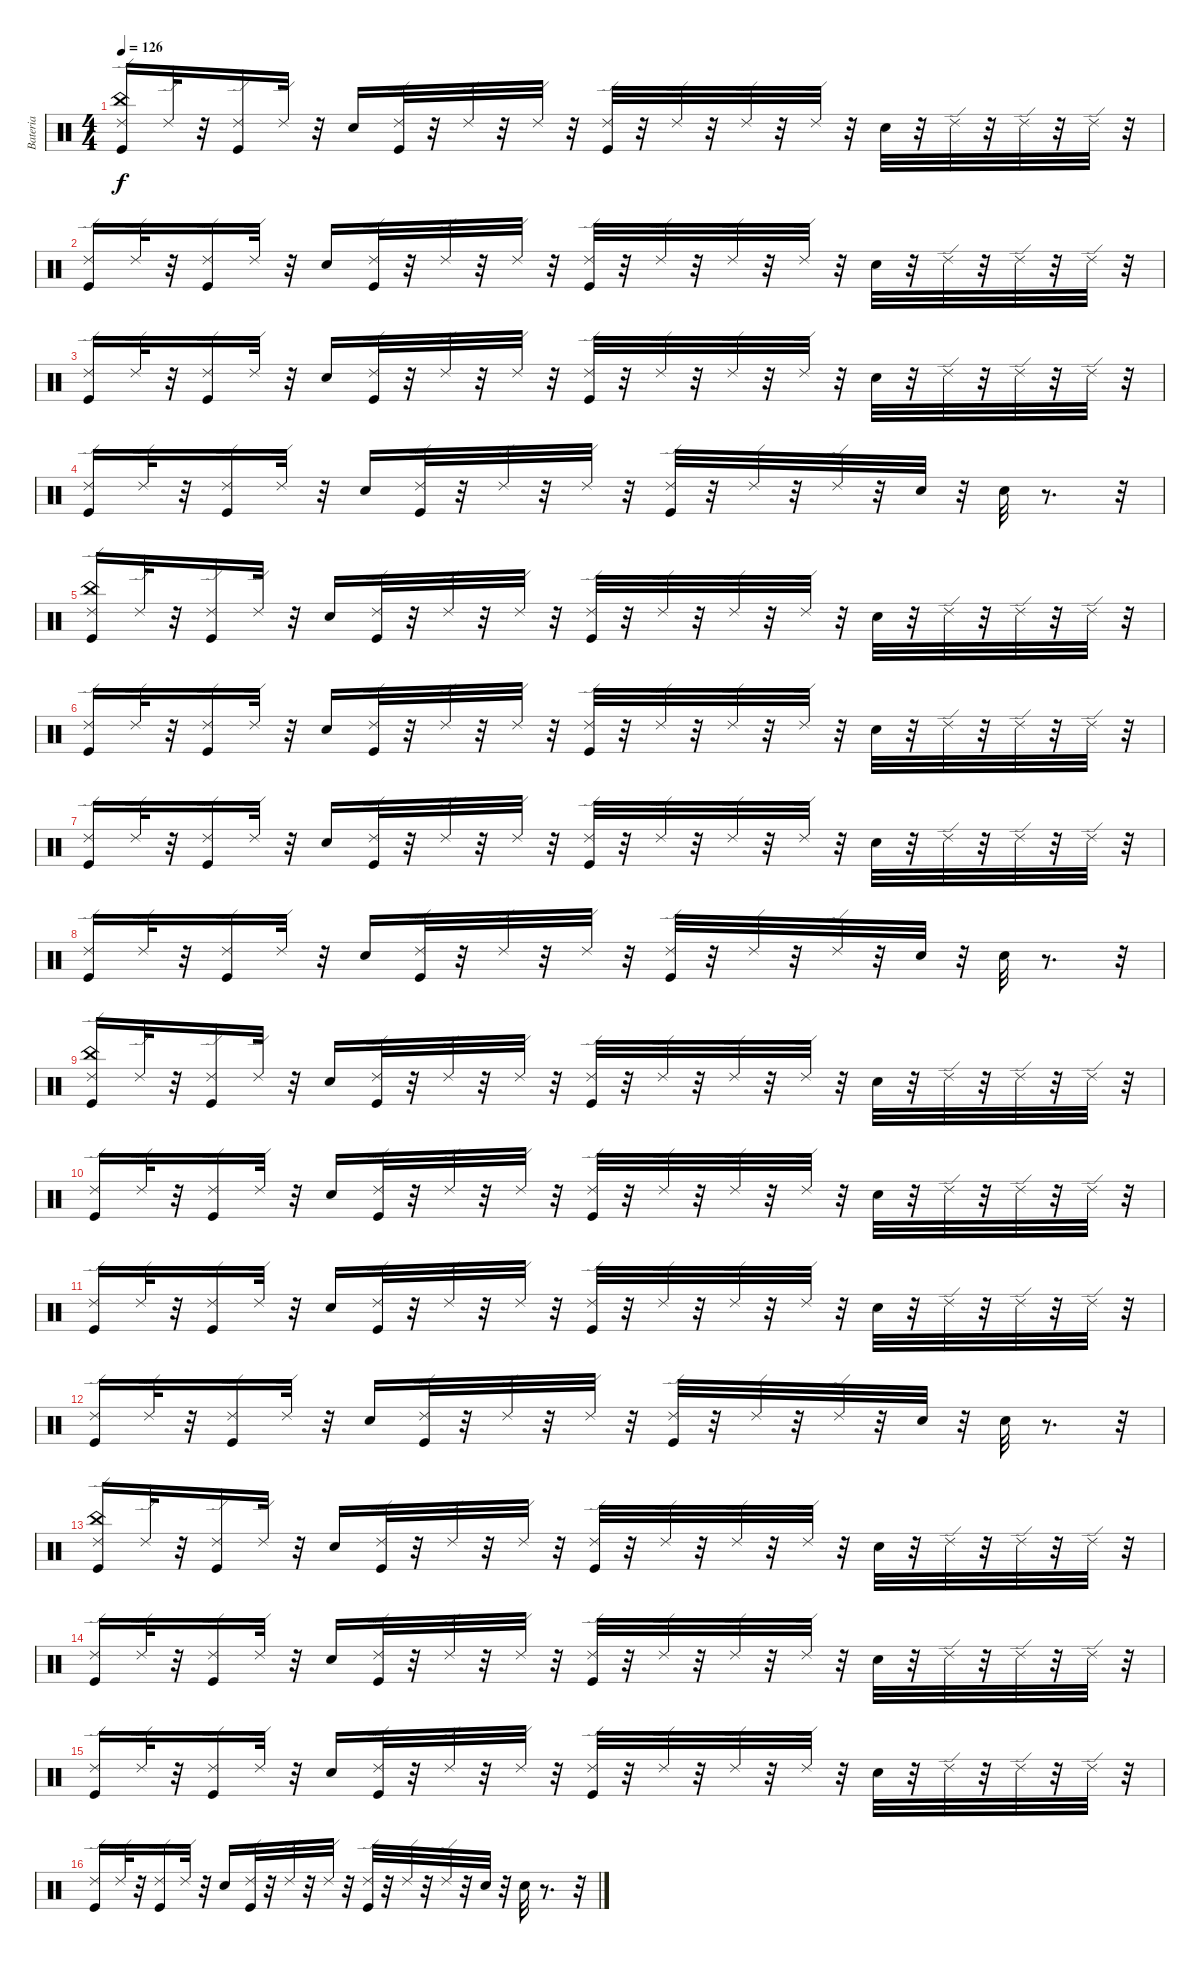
\track ("Bateria" "Bateria") {instrument percussion}
\staff {score}
\articulation defaults
\ts (4 4)
\tempo 126
\clef neutral
\ks c
("Ride (edge) 2" "China (hit)" "Kick (hit)").16{dy f} "Ride (edge) 2".32 r.32 ("Ride (edge) 2" "Kick (hit)").16 "Ride (edge) 2".32 r.32 "Snare (hit) 2".16 ("Kick (hit)" "Ride (edge) 2").32 r.32 "Ride (edge) 2".32 r.32 "Ride (edge) 2".32 r.32 ("Kick (hit)" "Ride (edge) 2").32 r.32 "Ride (edge) 2".32 r.32 "Ride (edge) 2".32 r.32 "Ride (edge) 2".32 r.32 "Snare (hit) 2".32 r.32 "Ride (edge) 2".32 r.32 "Ride (edge) 2".32 r.32 "Ride (edge) 2".32 r.32 |
("Ride (edge) 2" "Kick (hit)").16 "Ride (edge) 2".32 r.32 ("Kick (hit)" "Ride (edge) 2").16 "Ride (edge) 2".32 r.32 "Snare (hit) 2".16 ("Ride (edge) 2" "Kick (hit)").32 r.32 "Ride (edge) 2".32 r.32 "Ride (edge) 2".32 r.32 ("Kick (hit)" "Ride (edge) 2").32 r.32 "Ride (edge) 2".32 r.32 "Ride (edge) 2".32 r.32 "Ride (edge) 2".32 r.32 "Snare (hit) 2".32 r.32 "Ride (edge) 2".32 r.32 "Ride (edge) 2".32 r.32 "Ride (edge) 2".32 r.32 |
("Kick (hit)" "Ride (edge) 2").16 "Ride (edge) 2".32 r.32 ("Kick (hit)" "Ride (edge) 2").16 "Ride (edge) 2".32 r.32 "Snare (hit) 2".16 ("Ride (edge) 2" "Kick (hit)").32 r.32 "Ride (edge) 2".32 r.32 "Ride (edge) 2".32 r.32 ("Ride (edge) 2" "Kick (hit)").32 r.32 "Ride (edge) 2".32 r.32 "Ride (edge) 2".32 r.32 "Ride (edge) 2".32 r.32 "Snare (hit) 2".32 r.32 "Ride (edge) 2".32 r.32 "Ride (edge) 2".32 r.32 "Ride (edge) 2".32 r.32 |
("Kick (hit)" "Ride (edge) 2").16 "Ride (edge) 2".32 r.32 ("Kick (hit)" "Ride (edge) 2").16 "Ride (edge) 2".32 r.32 "Snare (hit) 2".16 ("Kick (hit)" "Ride (edge) 2").32 r.32 "Ride (edge) 2".32 r.32 "Ride (edge) 2".32 r.32 ("Kick (hit)" "Ride (edge) 2").32 r.32 "Ride (edge) 2".32 r.32 "Ride (edge) 2".32 r.32 "Snare (hit) 2".32 r.32 "Snare (hit) 2".32 r.8{d} r.32 |
("Ride (edge) 2" "China (hit)" "Kick (hit)").16 "Ride (edge) 2".32 r.32 ("Ride (edge) 2" "Kick (hit)").16 "Ride (edge) 2".32 r.32 "Snare (hit) 2".16 ("Kick (hit)" "Ride (edge) 2").32 r.32 "Ride (edge) 2".32 r.32 "Ride (edge) 2".32 r.32 ("Kick (hit)" "Ride (edge) 2").32 r.32 "Ride (edge) 2".32 r.32 "Ride (edge) 2".32 r.32 "Ride (edge) 2".32 r.32 "Snare (hit) 2".32 r.32 "Ride (edge) 2".32 r.32 "Ride (edge) 2".32 r.32 "Ride (edge) 2".32 r.32 |
("Ride (edge) 2" "Kick (hit)").16 "Ride (edge) 2".32 r.32 ("Kick (hit)" "Ride (edge) 2").16 "Ride (edge) 2".32 r.32 "Snare (hit) 2".16 ("Ride (edge) 2" "Kick (hit)").32 r.32 "Ride (edge) 2".32 r.32 "Ride (edge) 2".32 r.32 ("Kick (hit)" "Ride (edge) 2").32 r.32 "Ride (edge) 2".32 r.32 "Ride (edge) 2".32 r.32 "Ride (edge) 2".32 r.32 "Snare (hit) 2".32 r.32 "Ride (edge) 2".32 r.32 "Ride (edge) 2".32 r.32 "Ride (edge) 2".32 r.32 |
("Kick (hit)" "Ride (edge) 2").16 "Ride (edge) 2".32 r.32 ("Kick (hit)" "Ride (edge) 2").16 "Ride (edge) 2".32 r.32 "Snare (hit) 2".16 ("Ride (edge) 2" "Kick (hit)").32 r.32 "Ride (edge) 2".32 r.32 "Ride (edge) 2".32 r.32 ("Ride (edge) 2" "Kick (hit)").32 r.32 "Ride (edge) 2".32 r.32 "Ride (edge) 2".32 r.32 "Ride (edge) 2".32 r.32 "Snare (hit) 2".32 r.32 "Ride (edge) 2".32 r.32 "Ride (edge) 2".32 r.32 "Ride (edge) 2".32 r.32 |
("Kick (hit)" "Ride (edge) 2").16 "Ride (edge) 2".32 r.32 ("Kick (hit)" "Ride (edge) 2").16 "Ride (edge) 2".32 r.32 "Snare (hit) 2".16 ("Kick (hit)" "Ride (edge) 2").32 r.32 "Ride (edge) 2".32 r.32 "Ride (edge) 2".32 r.32 ("Kick (hit)" "Ride (edge) 2").32 r.32 "Ride (edge) 2".32 r.32 "Ride (edge) 2".32 r.32 "Snare (hit) 2".32 r.32 "Snare (hit) 2".32 r.8{d} r.32 |
("Ride (edge) 2" "China (hit)" "Kick (hit)").16 "Ride (edge) 2".32 r.32 ("Ride (edge) 2" "Kick (hit)").16 "Ride (edge) 2".32 r.32 "Snare (hit) 2".16 ("Kick (hit)" "Ride (edge) 2").32 r.32 "Ride (edge) 2".32 r.32 "Ride (edge) 2".32 r.32 ("Kick (hit)" "Ride (edge) 2").32 r.32 "Ride (edge) 2".32 r.32 "Ride (edge) 2".32 r.32 "Ride (edge) 2".32 r.32 "Snare (hit) 2".32 r.32 "Ride (edge) 2".32 r.32 "Ride (edge) 2".32 r.32 "Ride (edge) 2".32 r.32 |
("Ride (edge) 2" "Kick (hit)").16 "Ride (edge) 2".32 r.32 ("Kick (hit)" "Ride (edge) 2").16 "Ride (edge) 2".32 r.32 "Snare (hit) 2".16 ("Ride (edge) 2" "Kick (hit)").32 r.32 "Ride (edge) 2".32 r.32 "Ride (edge) 2".32 r.32 ("Kick (hit)" "Ride (edge) 2").32 r.32 "Ride (edge) 2".32 r.32 "Ride (edge) 2".32 r.32 "Ride (edge) 2".32 r.32 "Snare (hit) 2".32 r.32 "Ride (edge) 2".32 r.32 "Ride (edge) 2".32 r.32 "Ride (edge) 2".32 r.32 |
("Kick (hit)" "Ride (edge) 2").16 "Ride (edge) 2".32 r.32 ("Kick (hit)" "Ride (edge) 2").16 "Ride (edge) 2".32 r.32 "Snare (hit) 2".16 ("Ride (edge) 2" "Kick (hit)").32 r.32 "Ride (edge) 2".32 r.32 "Ride (edge) 2".32 r.32 ("Ride (edge) 2" "Kick (hit)").32 r.32 "Ride (edge) 2".32 r.32 "Ride (edge) 2".32 r.32 "Ride (edge) 2".32 r.32 "Snare (hit) 2".32 r.32 "Ride (edge) 2".32 r.32 "Ride (edge) 2".32 r.32 "Ride (edge) 2".32 r.32 |
("Kick (hit)" "Ride (edge) 2").16 "Ride (edge) 2".32 r.32 ("Kick (hit)" "Ride (edge) 2").16 "Ride (edge) 2".32 r.32 "Snare (hit) 2".16 ("Kick (hit)" "Ride (edge) 2").32 r.32 "Ride (edge) 2".32 r.32 "Ride (edge) 2".32 r.32 ("Kick (hit)" "Ride (edge) 2").32 r.32 "Ride (edge) 2".32 r.32 "Ride (edge) 2".32 r.32 "Snare (hit) 2".32 r.32 "Snare (hit) 2".32 r.8{d} r.32 |
("Ride (edge) 2" "China (hit)" "Kick (hit)").16 "Ride (edge) 2".32 r.32 ("Ride (edge) 2" "Kick (hit)").16 "Ride (edge) 2".32 r.32 "Snare (hit) 2".16 ("Kick (hit)" "Ride (edge) 2").32 r.32 "Ride (edge) 2".32 r.32 "Ride (edge) 2".32 r.32 ("Kick (hit)" "Ride (edge) 2").32 r.32 "Ride (edge) 2".32 r.32 "Ride (edge) 2".32 r.32 "Ride (edge) 2".32 r.32 "Snare (hit) 2".32 r.32 "Ride (edge) 2".32 r.32 "Ride (edge) 2".32 r.32 "Ride (edge) 2".32 r.32 |
("Ride (edge) 2" "Kick (hit)").16 "Ride (edge) 2".32 r.32 ("Kick (hit)" "Ride (edge) 2").16 "Ride (edge) 2".32 r.32 "Snare (hit) 2".16 ("Ride (edge) 2" "Kick (hit)").32 r.32 "Ride (edge) 2".32 r.32 "Ride (edge) 2".32 r.32 ("Kick (hit)" "Ride (edge) 2").32 r.32 "Ride (edge) 2".32 r.32 "Ride (edge) 2".32 r.32 "Ride (edge) 2".32 r.32 "Snare (hit) 2".32 r.32 "Ride (edge) 2".32 r.32 "Ride (edge) 2".32 r.32 "Ride (edge) 2".32 r.32 |
("Kick (hit)" "Ride (edge) 2").16 "Ride (edge) 2".32 r.32 ("Kick (hit)" "Ride (edge) 2").16 "Ride (edge) 2".32 r.32 "Snare (hit) 2".16 ("Ride (edge) 2" "Kick (hit)").32 r.32 "Ride (edge) 2".32 r.32 "Ride (edge) 2".32 r.32 ("Ride (edge) 2" "Kick (hit)").32 r.32 "Ride (edge) 2".32 r.32 "Ride (edge) 2".32 r.32 "Ride (edge) 2".32 r.32 "Snare (hit) 2".32 r.32 "Ride (edge) 2".32 r.32 "Ride (edge) 2".32 r.32 "Ride (edge) 2".32 r.32 |
("Kick (hit)" "Ride (edge) 2").16 "Ride (edge) 2".32 r.32 ("Kick (hit)" "Ride (edge) 2").16 "Ride (edge) 2".32 r.32 "Snare (hit) 2".16 ("Kick (hit)" "Ride (edge) 2").32 r.32 "Ride (edge) 2".32 r.32 "Ride (edge) 2".32 r.32 ("Kick (hit)" "Ride (edge) 2").32 r.32 "Ride (edge) 2".32 r.32 "Ride (edge) 2".32 r.32 "Snare (hit) 2".32 r.32 "Snare (hit) 2".32 r.8{d} r.32
